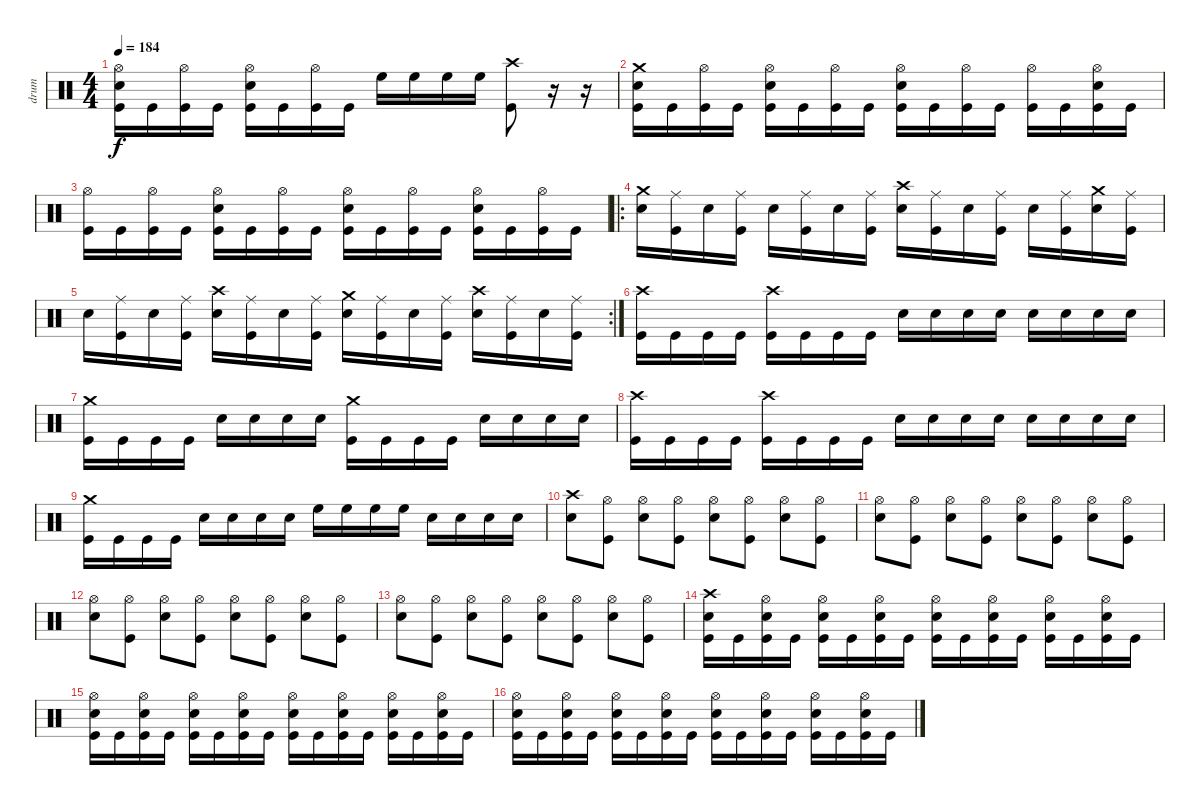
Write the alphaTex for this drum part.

\track ("drum" "drum") {instrument percussion}
\staff {score}
\articulation defaults
\ts (4 4)
\tempo 184
\clef neutral
\ks c
("Hi-Hat (open)" "Electric Snare (hit)" "Kick (hit)").16{dy f} "Kick (hit)".16 ("Hi-Hat (open)" "Kick (hit)").16 "Kick (hit)".16 ("Hi-Hat (open)" "Electric Snare (hit)" "Kick (hit)").16 "Kick (hit)".16 ("Hi-Hat (open)" "Kick (hit)").16 "Kick (hit)".16 "High Floor Tom (hit)".16 "High Floor Tom (hit)".16 "High Floor Tom (hit)".16 "High Floor Tom (hit)".16 ("Crash high (hit)" "Kick (hit)").8 r.16 r.16 |
("Crash medium (hit)" "Electric Snare (hit)" "Kick (hit)").16 "Kick (hit)".16 ("Hi-Hat (open)" "Kick (hit)").16 "Kick (hit)".16 ("Hi-Hat (open)" "Electric Snare (hit)" "Kick (hit)").16 "Kick (hit)".16 ("Hi-Hat (open)" "Kick (hit)").16 "Kick (hit)".16 ("Hi-Hat (open)" "Electric Snare (hit)" "Kick (hit)").16 "Kick (hit)".16 ("Hi-Hat (open)" "Kick (hit)").16 "Kick (hit)".16 ("Hi-Hat (open)" "Kick (hit)").16 "Kick (hit)".16 ("Hi-Hat (open)" "Electric Snare (hit)" "Kick (hit)").16 "Kick (hit)".16 |
("Hi-Hat (open)" "Kick (hit)").16 "Kick (hit)".16 ("Hi-Hat (open)" "Kick (hit)").16 "Kick (hit)".16 ("Hi-Hat (open)" "Electric Snare (hit)" "Kick (hit)").16 "Kick (hit)".16 ("Hi-Hat (open)" "Kick (hit)").16 "Kick (hit)".16 ("Hi-Hat (open)" "Electric Snare (hit)" "Kick (hit)").16 "Kick (hit)".16 ("Hi-Hat (open)" "Kick (hit)").16 "Kick (hit)".16 ("Hi-Hat (open)" "Electric Snare (hit)" "Kick (hit)").16 "Kick (hit)".16 ("Hi-Hat (open)" "Kick (hit)").16 "Kick (hit)".16 |
\ro
("Crash medium (hit)" "Electric Snare (hit)").16 ("Ride (middle)" "Kick (hit)").16 "Electric Snare (hit)".16 ("Ride (middle)" "Kick (hit)").16 "Electric Snare (hit)".16 ("Ride (middle)" "Kick (hit)").16 "Electric Snare (hit)".16 ("Ride (middle)" "Kick (hit)").16 ("Crash high (hit)" "Electric Snare (hit)").16 ("Ride (middle)" "Kick (hit)").16 "Electric Snare (hit)".16 ("Ride (middle)" "Kick (hit)").16 "Electric Snare (hit)".16 ("Ride (middle)" "Kick (hit)").16 ("Crash medium (hit)" "Electric Snare (hit)").16 ("Ride (middle)" "Kick (hit)").16 |
\rc 2 "Electric Snare (hit)".16
("Ride (middle)" "Kick (hit)").16 "Electric Snare (hit)".16 ("Ride (middle)" "Kick (hit)").16 ("Crash high (hit)" "Electric Snare (hit)").16 ("Ride (middle)" "Kick (hit)").16 "Electric Snare (hit)".16 ("Ride (middle)" "Kick (hit)").16 ("Crash medium (hit)" "Electric Snare (hit)").16 ("Ride (middle)" "Kick (hit)").16 "Electric Snare (hit)".16 ("Ride (middle)" "Kick (hit)").16 ("Crash high (hit)" "Electric Snare (hit)").16 ("Ride (middle)" "Kick (hit)").16 "Electric Snare (hit)".16 ("Ride (middle)" "Kick (hit)").16 |
("Crash high (hit)" "Kick (hit)").16 "Kick (hit)".16 "Kick (hit)".16 "Kick (hit)".16 ("Crash high (hit)" "Kick (hit)").16 "Kick (hit)".16 "Kick (hit)".16 "Kick (hit)".16 "Electric Snare (hit)".16 "Electric Snare (hit)".16 "Electric Snare (hit)".16 "Electric Snare (hit)".16 "Electric Snare (hit)".16 "Electric Snare (hit)".16 "Electric Snare (hit)".16 "Electric Snare (hit)".16 |
("Crash medium (hit)" "Kick (hit)").16 "Kick (hit)".16 "Kick (hit)".16 "Kick (hit)".16 "Electric Snare (hit)".16 "Electric Snare (hit)".16 "Electric Snare (hit)".16 "Electric Snare (hit)".16 ("Crash medium (hit)" "Kick (hit)").16 "Kick (hit)".16 "Kick (hit)".16 "Kick (hit)".16 "Electric Snare (hit)".16 "Electric Snare (hit)".16 "Electric Snare (hit)".16 "Electric Snare (hit)".16 |
("Crash high (hit)" "Kick (hit)").16 "Kick (hit)".16 "Kick (hit)".16 "Kick (hit)".16 ("Crash high (hit)" "Kick (hit)").16 "Kick (hit)".16 "Kick (hit)".16 "Kick (hit)".16 "Electric Snare (hit)".16 "Electric Snare (hit)".16 "Electric Snare (hit)".16 "Electric Snare (hit)".16 "Electric Snare (hit)".16 "Electric Snare (hit)".16 "Electric Snare (hit)".16 "Electric Snare (hit)".16 |
("Crash medium (hit)" "Kick (hit)").16 "Kick (hit)".16 "Kick (hit)".16 "Kick (hit)".16 "Electric Snare (hit)".16 "Electric Snare (hit)".16 "Electric Snare (hit)".16 "Electric Snare (hit)".16 "High Floor Tom (hit)".16 "High Floor Tom (hit)".16 "High Floor Tom (hit)".16 "High Floor Tom (hit)".16 "Electric Snare (hit)".16 "Electric Snare (hit)".16 "Electric Snare (hit)".16 "Electric Snare (hit)".16 |
("Crash high (hit)" "Electric Snare (hit)").8 ("Hi-Hat (open)" "Kick (hit)").8 ("Hi-Hat (open)" "Electric Snare (hit)").8 ("Hi-Hat (open)" "Kick (hit)").8 ("Hi-Hat (open)" "Electric Snare (hit)").8 ("Hi-Hat (open)" "Kick (hit)").8 ("Hi-Hat (open)" "Electric Snare (hit)").8 ("Hi-Hat (open)" "Kick (hit)").8 |
("Hi-Hat (open)" "Electric Snare (hit)").8 ("Hi-Hat (open)" "Kick (hit)").8 ("Hi-Hat (open)" "Electric Snare (hit)").8 ("Hi-Hat (open)" "Kick (hit)").8 ("Hi-Hat (open)" "Electric Snare (hit)").8 ("Hi-Hat (open)" "Kick (hit)").8 ("Hi-Hat (open)" "Electric Snare (hit)").8 ("Hi-Hat (open)" "Kick (hit)").8 |
("Hi-Hat (open)" "Electric Snare (hit)").8 ("Hi-Hat (open)" "Kick (hit)").8 ("Hi-Hat (open)" "Electric Snare (hit)").8 ("Hi-Hat (open)" "Kick (hit)").8 ("Hi-Hat (open)" "Electric Snare (hit)").8 ("Hi-Hat (open)" "Kick (hit)").8 ("Hi-Hat (open)" "Electric Snare (hit)").8 ("Hi-Hat (open)" "Kick (hit)").8 |
("Hi-Hat (open)" "Electric Snare (hit)").8 ("Hi-Hat (open)" "Kick (hit)").8 ("Hi-Hat (open)" "Electric Snare (hit)").8 ("Hi-Hat (open)" "Kick (hit)").8 ("Hi-Hat (open)" "Electric Snare (hit)").8 ("Hi-Hat (open)" "Kick (hit)").8 ("Hi-Hat (open)" "Electric Snare (hit)").8 ("Hi-Hat (open)" "Kick (hit)").8 |
("Crash high (hit)" "Electric Snare (hit)" "Kick (hit)").16 "Kick (hit)".16 ("Hi-Hat (open)" "Electric Snare (hit)" "Kick (hit)").16 "Kick (hit)".16 ("Hi-Hat (open)" "Electric Snare (hit)" "Kick (hit)").16 "Kick (hit)".16 ("Hi-Hat (open)" "Electric Snare (hit)" "Kick (hit)").16 "Kick (hit)".16 ("Hi-Hat (open)" "Electric Snare (hit)" "Kick (hit)").16 "Kick (hit)".16 ("Hi-Hat (open)" "Electric Snare (hit)" "Kick (hit)").16 "Kick (hit)".16 ("Hi-Hat (open)" "Electric Snare (hit)" "Kick (hit)").16 "Kick (hit)".16 ("Hi-Hat (open)" "Electric Snare (hit)" "Kick (hit)").16 "Kick (hit)".16 |
("Hi-Hat (open)" "Electric Snare (hit)" "Kick (hit)").16 "Kick (hit)".16 ("Hi-Hat (open)" "Electric Snare (hit)" "Kick (hit)").16 "Kick (hit)".16 ("Hi-Hat (open)" "Electric Snare (hit)" "Kick (hit)").16 "Kick (hit)".16 ("Hi-Hat (open)" "Electric Snare (hit)" "Kick (hit)").16 "Kick (hit)".16 ("Hi-Hat (open)" "Electric Snare (hit)" "Kick (hit)").16 "Kick (hit)".16 ("Hi-Hat (open)" "Electric Snare (hit)" "Kick (hit)").16 "Kick (hit)".16 ("Hi-Hat (open)" "Electric Snare (hit)" "Kick (hit)").16 "Kick (hit)".16 ("Hi-Hat (open)" "Electric Snare (hit)" "Kick (hit)").16 "Kick (hit)".16 |
("Hi-Hat (open)" "Electric Snare (hit)" "Kick (hit)").16 "Kick (hit)".16 ("Hi-Hat (open)" "Electric Snare (hit)" "Kick (hit)").16 "Kick (hit)".16 ("Hi-Hat (open)" "Electric Snare (hit)" "Kick (hit)").16 "Kick (hit)".16 ("Hi-Hat (open)" "Electric Snare (hit)" "Kick (hit)").16 "Kick (hit)".16 ("Hi-Hat (open)" "Electric Snare (hit)" "Kick (hit)").16 "Kick (hit)".16 ("Hi-Hat (open)" "Electric Snare (hit)" "Kick (hit)").16 "Kick (hit)".16 ("Hi-Hat (open)" "Electric Snare (hit)" "Kick (hit)").16 "Kick (hit)".16 ("Hi-Hat (open)" "Electric Snare (hit)" "Kick (hit)").16 "Kick (hit)".16
